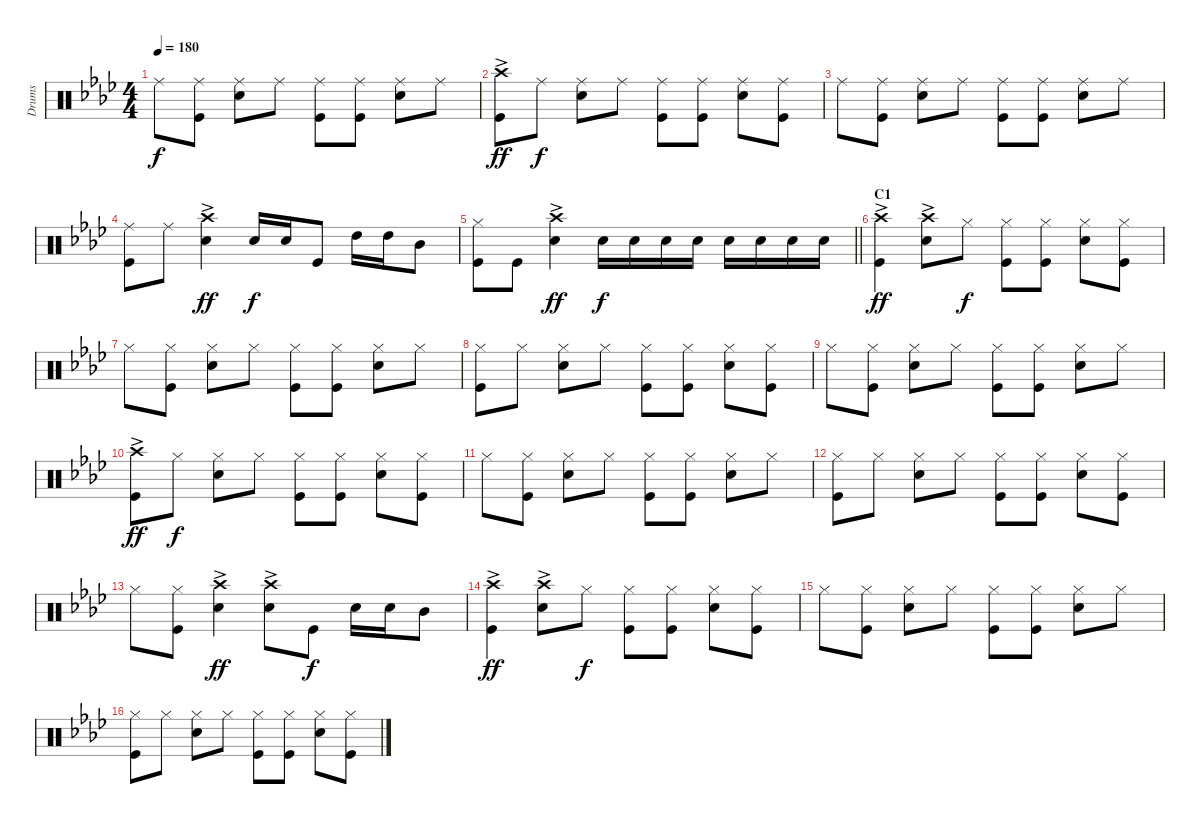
\track ("Drums" "Drums") {instrument percussion}
\staff {score}
\articulation defaults
\ts (4 4)
\tempo 180
\clef neutral
\ks ab "Ride (middle)".8{dy f}
("Ride (middle)" "Kick (hit)").8 ("Ride (middle)" "Snare (hit) 2").8 "Ride (middle)".8 ("Ride (middle)" "Kick (hit)").8 ("Ride (middle)" "Kick (hit)").8 ("Ride (middle)" "Snare (hit) 2").8 "Ride (middle)".8 |
("Crash high (hit)"{ac} "Kick (hit)").8{dy ff} "Ride (middle)".8{dy f} ("Ride (middle)" "Snare (hit) 2").8 "Ride (middle)".8 ("Ride (middle)" "Kick (hit)").8 ("Ride (middle)" "Kick (hit)").8 ("Ride (middle)" "Snare (hit) 2").8 ("Ride (middle)" "Kick (hit)").8 |
"Ride (middle)".8 ("Ride (middle)" "Kick (hit)").8 ("Ride (middle)" "Snare (hit) 2").8 "Ride (middle)".8 ("Ride (middle)" "Kick (hit)").8 ("Ride (middle)" "Kick (hit)").8 ("Ride (middle)" "Snare (hit) 2").8 "Ride (middle)".8 |
("Ride (middle)" "Kick (hit)").8 "Ride (middle)".8 ("Crash high (hit)"{ac} "Snare (hit) 2").4{dy ff} "Snare (hit) 2".16{dy f} "Snare (hit) 2".16 "Kick (hit)".8 "High Tom (hit)".16 "High Tom (hit)".16 "Mid Tom (hit)".8 |
\barLineRight lightlight
("Hi-Hat (closed)" "Kick (hit)").8 "Kick (hit)".8 ("Crash high (hit)"{ac} "Snare (hit) 2").4{dy ff} "Snare (hit) 2".16{dy f} "Snare (hit) 2".16 "Snare (hit) 2".16 "Snare (hit) 2".16 "Snare (hit) 2".16 "Snare (hit) 2".16 "Snare (hit) 2".16 "Snare (hit) 2".16 |
\section ("" "C1")
("Crash high (hit)"{ac} "Kick (hit)").4{dy ff} ("Crash high (hit)"{ac} "Snare (hit) 2").8 "Hi-Hat (closed)".8{dy f} ("Hi-Hat (closed)" "Kick (hit)").8 ("Hi-Hat (closed)" "Kick (hit)").8 ("Hi-Hat (closed)" "Snare (hit) 2").8 ("Hi-Hat (closed)" "Kick (hit)").8 |
"Hi-Hat (closed)".8 ("Hi-Hat (closed)" "Kick (hit)").8 ("Hi-Hat (closed)" "Snare (hit) 2").8 "Hi-Hat (closed)".8 ("Hi-Hat (closed)" "Kick (hit)").8 ("Hi-Hat (closed)" "Kick (hit)").8 ("Hi-Hat (closed)" "Snare (hit) 2").8 "Hi-Hat (closed)".8 |
("Hi-Hat (closed)" "Kick (hit)").8 "Hi-Hat (closed)".8 ("Hi-Hat (closed)" "Snare (hit) 2").8 "Hi-Hat (closed)".8 ("Hi-Hat (closed)" "Kick (hit)").8 ("Hi-Hat (closed)" "Kick (hit)").8 ("Hi-Hat (closed)" "Snare (hit) 2").8 ("Hi-Hat (closed)" "Kick (hit)").8 |
"Hi-Hat (closed)".8 ("Hi-Hat (closed)" "Kick (hit)").8 ("Hi-Hat (closed)" "Snare (hit) 2").8 "Hi-Hat (closed)".8 ("Hi-Hat (closed)" "Kick (hit)").8 ("Hi-Hat (closed)" "Kick (hit)").8 ("Hi-Hat (closed)" "Snare (hit) 2").8 "Hi-Hat (closed)".8 |
("Crash high (hit)"{ac} "Kick (hit)").8{dy ff} "Hi-Hat (closed)".8{dy f} ("Hi-Hat (closed)" "Snare (hit) 2").8 "Hi-Hat (closed)".8 ("Hi-Hat (closed)" "Kick (hit)").8 ("Hi-Hat (closed)" "Kick (hit)").8 ("Hi-Hat (closed)" "Snare (hit) 2").8 ("Hi-Hat (closed)" "Kick (hit)").8 |
"Hi-Hat (closed)".8 ("Hi-Hat (closed)" "Kick (hit)").8 ("Hi-Hat (closed)" "Snare (hit) 2").8 "Hi-Hat (closed)".8 ("Hi-Hat (closed)" "Kick (hit)").8 ("Hi-Hat (closed)" "Kick (hit)").8 ("Hi-Hat (closed)" "Snare (hit) 2").8 "Hi-Hat (closed)".8 |
("Hi-Hat (closed)" "Kick (hit)").8 "Hi-Hat (closed)".8 ("Hi-Hat (closed)" "Snare (hit) 2").8 "Hi-Hat (closed)".8 ("Hi-Hat (closed)" "Kick (hit)").8 ("Hi-Hat (closed)" "Kick (hit)").8 ("Hi-Hat (closed)" "Snare (hit) 2").8 ("Hi-Hat (closed)" "Kick (hit)").8 |
"Hi-Hat (closed)".8 ("Hi-Hat (closed)" "Kick (hit)").8 ("Crash high (hit)"{ac} "Snare (hit) 2").4{dy ff} ("Crash high (hit)"{ac} "Snare (hit) 2").8 "Kick (hit)".8{dy f} "Snare (hit) 2".16 "Snare (hit) 2".16 "Mid Tom (hit)".8 |
("Crash high (hit)"{ac} "Kick (hit)").4{dy ff} ("Crash high (hit)"{ac} "Snare (hit) 2").8 "Hi-Hat (closed)".8{dy f} ("Hi-Hat (closed)" "Kick (hit)").8 ("Hi-Hat (closed)" "Kick (hit)").8 ("Hi-Hat (closed)" "Snare (hit) 2").8 ("Hi-Hat (closed)" "Kick (hit)").8 |
"Hi-Hat (closed)".8 ("Hi-Hat (closed)" "Kick (hit)").8 ("Hi-Hat (closed)" "Snare (hit) 2").8 "Hi-Hat (closed)".8 ("Hi-Hat (closed)" "Kick (hit)").8 ("Hi-Hat (closed)" "Kick (hit)").8 ("Hi-Hat (closed)" "Snare (hit) 2").8 "Hi-Hat (closed)".8 |
("Hi-Hat (closed)" "Kick (hit)").8 "Hi-Hat (closed)".8 ("Hi-Hat (closed)" "Snare (hit) 2").8 "Hi-Hat (closed)".8 ("Hi-Hat (closed)" "Kick (hit)").8 ("Hi-Hat (closed)" "Kick (hit)").8 ("Hi-Hat (closed)" "Snare (hit) 2").8 ("Hi-Hat (closed)" "Kick (hit)").8
